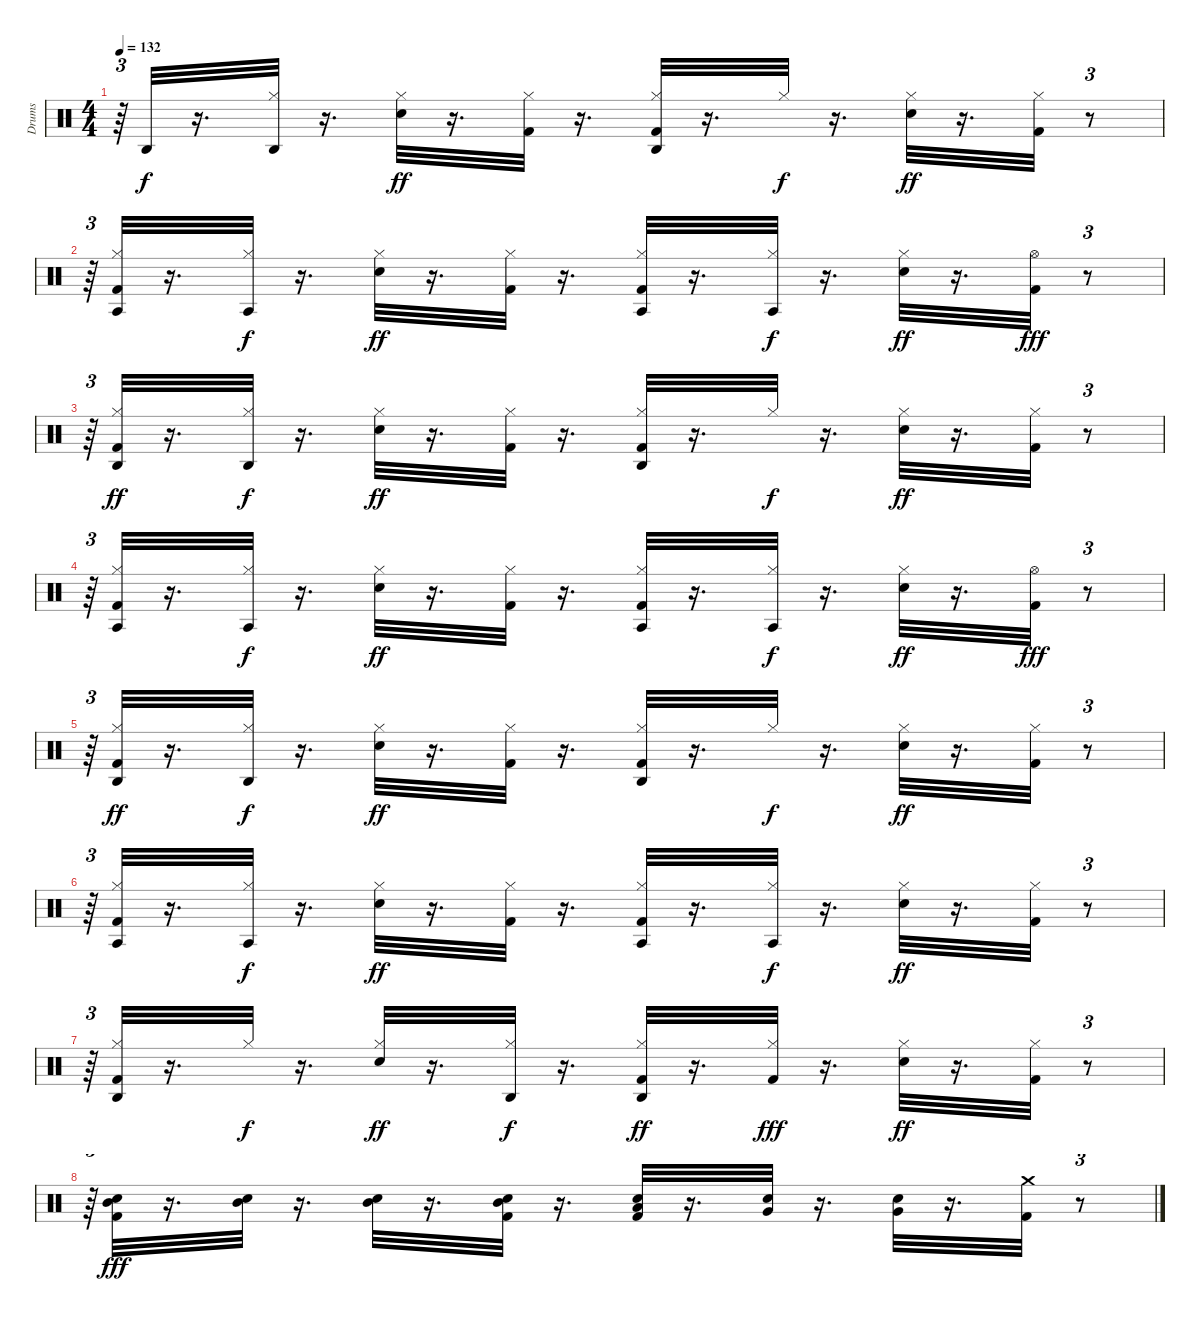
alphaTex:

\track ("Drums" "Drums") {instrument percussion}
\staff {score}
\articulation defaults
\ts (4 4)
\tempo 132
\clef neutral
\ks c
r.64{tu (3 2) dy fff} "Agogo high (hit)".32{dy f} r.16{d} ("Hi-Hat (closed)" "Agogo high (hit)").32 r.16{d} ("Snare (hit) 2" "Hi-Hat (closed)").32{dy ff} r.16{d} ("Kick (hit) 2" "Hi-Hat (closed)").32 r.16{d} ("Kick (hit) 2" "Hi-Hat (closed)" "Agogo high (hit)").32 r.16{d} "Hi-Hat (closed)".32{dy f} r.16{d} ("Snare (hit) 2" "Hi-Hat (closed)").32{dy ff} r.16{d} ("Kick (hit) 2" "Hi-Hat (closed)").32 r.8{tu (3 2)} |
r.64{tu (3 2)} ("Kick (hit) 2" "Hi-Hat (closed)" "Agogo tow (hit)").32 r.16{d} ("Hi-Hat (closed)" "Agogo tow (hit)").32{dy f} r.16{d} ("Snare (hit) 2" "Hi-Hat (closed)").32{dy ff} r.16{d} ("Kick (hit) 2" "Hi-Hat (closed)").32 r.16{d} ("Kick (hit) 2" "Hi-Hat (closed)" "Agogo tow (hit)").32 r.16{d} ("Hi-Hat (closed)" "Agogo tow (hit)").32{dy f} r.16{d} ("Snare (hit) 2" "Hi-Hat (closed)").32{dy ff} r.16{d} ("Kick (hit) 2" "Hi-Hat (open)").32{dy fff} r.8{tu (3 2)} |
r.64{tu (3 2)} ("Kick (hit) 2" "Hi-Hat (closed)" "Agogo high (hit)").32{dy ff} r.16{d} ("Hi-Hat (closed)" "Agogo high (hit)").32{dy f} r.16{d} ("Snare (hit) 2" "Hi-Hat (closed)").32{dy ff} r.16{d} ("Kick (hit) 2" "Hi-Hat (closed)").32 r.16{d} ("Kick (hit) 2" "Hi-Hat (closed)" "Agogo high (hit)").32 r.16{d} "Hi-Hat (closed)".32{dy f} r.16{d} ("Snare (hit) 2" "Hi-Hat (closed)").32{dy ff} r.16{d} ("Kick (hit) 2" "Hi-Hat (closed)").32 r.8{tu (3 2)} |
r.64{tu (3 2)} ("Kick (hit) 2" "Hi-Hat (closed)" "Agogo tow (hit)").32 r.16{d} ("Hi-Hat (closed)" "Agogo tow (hit)").32{dy f} r.16{d} ("Snare (hit) 2" "Hi-Hat (closed)").32{dy ff} r.16{d} ("Kick (hit) 2" "Hi-Hat (closed)").32 r.16{d} ("Kick (hit) 2" "Hi-Hat (closed)" "Agogo tow (hit)").32 r.16{d} ("Hi-Hat (closed)" "Agogo tow (hit)").32{dy f} r.16{d} ("Snare (hit) 2" "Hi-Hat (closed)").32{dy ff} r.16{d} ("Kick (hit) 2" "Hi-Hat (open)").32{dy fff} r.8{tu (3 2)} |
r.64{tu (3 2)} ("Kick (hit) 2" "Hi-Hat (closed)" "Agogo high (hit)").32{dy ff} r.16{d} ("Hi-Hat (closed)" "Agogo high (hit)").32{dy f} r.16{d} ("Snare (hit) 2" "Hi-Hat (closed)").32{dy ff} r.16{d} ("Kick (hit) 2" "Hi-Hat (closed)").32 r.16{d} ("Kick (hit) 2" "Hi-Hat (closed)" "Agogo high (hit)").32 r.16{d} "Hi-Hat (closed)".32{dy f} r.16{d} ("Snare (hit) 2" "Hi-Hat (closed)").32{dy ff} r.16{d} ("Kick (hit) 2" "Hi-Hat (closed)").32 r.8{tu (3 2)} |
r.64{tu (3 2)} ("Kick (hit) 2" "Hi-Hat (closed)" "Agogo tow (hit)").32 r.16{d} ("Hi-Hat (closed)" "Agogo tow (hit)").32{dy f} r.16{d} ("Snare (hit) 2" "Hi-Hat (closed)").32{dy ff} r.16{d} ("Kick (hit) 2" "Hi-Hat (closed)").32 r.16{d} ("Kick (hit) 2" "Hi-Hat (closed)" "Agogo tow (hit)").32 r.16{d} ("Hi-Hat (closed)" "Agogo tow (hit)").32{dy f} r.16{d} ("Snare (hit) 2" "Hi-Hat (closed)").32{dy ff} r.16{d} ("Kick (hit) 2" "Hi-Hat (closed)").32 r.8{tu (3 2)} |
r.64{tu (3 2)} ("Kick (hit) 2" "Hi-Hat (closed)" "Agogo high (hit)").32 r.16{d} "Hi-Hat (closed)".32{dy f} r.16{d} ("Snare (hit) 2" "Hi-Hat (closed)").32{dy ff} r.16{d} ("Hi-Hat (closed)" "Agogo high (hit)").32{dy f} r.16{d} ("Kick (hit) 2" "Hi-Hat (closed)" "Agogo high (hit)").32{dy ff} r.16{d} ("Kick (hit) 2" "Hi-Hat (closed)").32{dy fff} r.16{d} ("Snare (hit) 2" "Hi-Hat (closed)").32{dy ff} r.16{d} ("Kick (hit) 2" "Hi-Hat (closed)").32 r.8{tu (3 2)} |
r.64{tu (3 2)} ("Kick (hit) 2" "Snare (hit) 2" "Mid Tom (hit)").32{dy fff} r.16{d} ("Snare (hit) 2" "Mid Tom (hit)").32 r.16{d} ("Snare (hit) 2" "Mid Tom (hit)").32 r.16{d} ("Kick (hit) 2" "Snare (hit) 2" "Mid Tom (hit)").32 r.16{d} ("Kick (hit) 2" "Snare (hit) 2" "Low Tom (hit)").32 r.16{d} ("Snare (hit) 2" "Very Low Tom (hit)").32 r.16{d} ("Snare (hit) 2" "Very Low Tom (hit)").32 r.16{d} ("Kick (hit) 2" "Crash medium (hit)").32 r.8{tu (3 2)}
